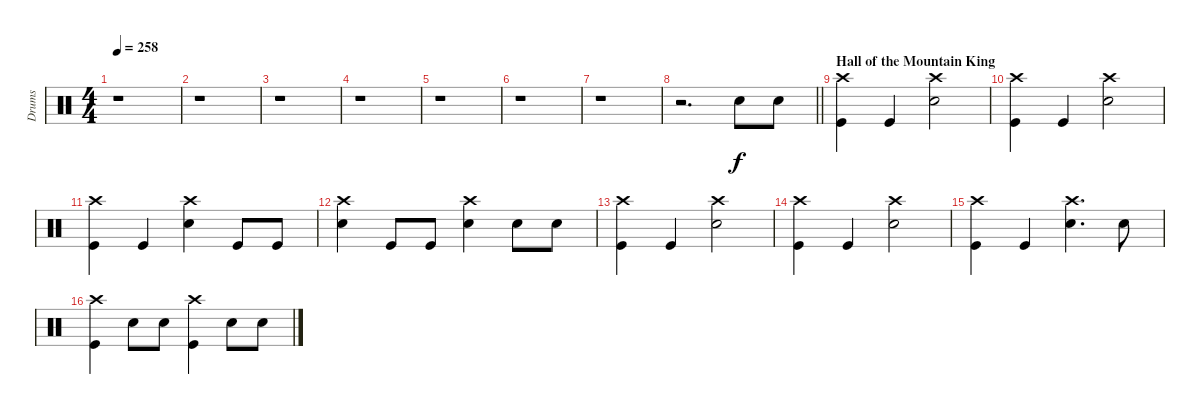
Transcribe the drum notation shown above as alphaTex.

\track ("Drums" "Drums") {instrument percussion}
\staff {score}
\articulation defaults
\ts (4 4)
\tempo 258
\clef neutral
\ks c
r.1{dy f} |
r.1 |
r.1 |
r.1 |
r.1 |
r.1 |
r.1 |
\barLineRight lightlight
r.2{d} "Electric Snare (hit)".8 "Electric Snare (hit)".8 |
\section ("" "Hall of the Mountain King")
("Crash high (hit)" "Kick (hit)").4 "Kick (hit)".4 ("Crash high (hit)" "Electric Snare (hit)").2 |
("Crash high (hit)" "Kick (hit)").4 "Kick (hit)".4 ("Crash high (hit)" "Electric Snare (hit)").2 |
("Crash high (hit)" "Kick (hit)").4 "Kick (hit)".4 ("Crash high (hit)" "Electric Snare (hit)").4 "Kick (hit)".8 "Kick (hit)".8 |
("Crash high (hit)" "Electric Snare (hit)").4 "Kick (hit)".8 "Kick (hit)".8 ("Crash high (hit)" "Electric Snare (hit)").4 "Electric Snare (hit)".8 "Electric Snare (hit)".8 |
("Crash high (hit)" "Kick (hit)").4 "Kick (hit)".4 ("Crash high (hit)" "Electric Snare (hit)").2 |
("Crash high (hit)" "Kick (hit)").4 "Kick (hit)".4 ("Crash high (hit)" "Electric Snare (hit)").2 |
("Crash high (hit)" "Kick (hit)").4 "Kick (hit)".4 ("Crash high (hit)" "Electric Snare (hit)").4{d} "Electric Snare (hit)".8 |
("Crash high (hit)" "Kick (hit)").4 "Electric Snare (hit)".8 "Electric Snare (hit)".8 ("Crash high (hit)" "Kick (hit)").4 "Electric Snare (hit)".8 "Electric Snare (hit)".8
